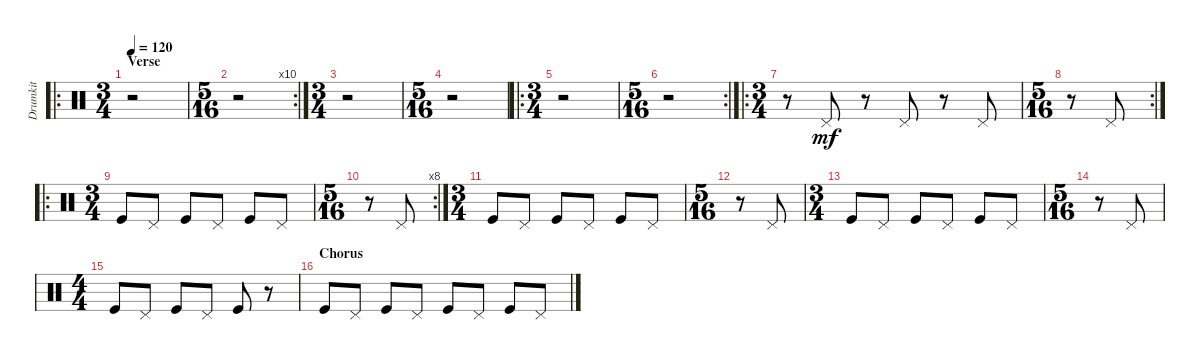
\track ("Drumkit" "Drumkit") {instrument percussion}
\staff {score}
\articulation defaults
\ro
\ts (3 4)
\section ("" "Verse")
\tempo 120
\clef neutral
\ks c
r.2{dy mf} |
\rc 10
\ts (5 16)
r.2 |
\ts (3 4)
r.2 |
\ts (5 16)
r.2 |
\ro
\ts (3 4)
r.2 |
\rc 2
\ts (5 16)
r.2 |
\ro
\ts (3 4)
r.8 "Pedal Hi-Hat (hit)".8 r.8 "Pedal Hi-Hat (hit)".8 r.8 "Pedal Hi-Hat (hit)".8 |
\rc 2
\ts (5 16)
r.8 "Pedal Hi-Hat (hit)".8 |
\ro
\ts (3 4)
"Kick (hit)".8 "Pedal Hi-Hat (hit)".8 "Kick (hit)".8 "Pedal Hi-Hat (hit)".8 "Kick (hit)".8 "Pedal Hi-Hat (hit)".8 |
\rc 8
\ts (5 16)
r.8 "Pedal Hi-Hat (hit)".8 |
\ts (3 4)
"Kick (hit)".8 "Pedal Hi-Hat (hit)".8 "Kick (hit)".8 "Pedal Hi-Hat (hit)".8 "Kick (hit)".8 "Pedal Hi-Hat (hit)".8 |
\ts (5 16)
r.8 "Pedal Hi-Hat (hit)".8 |
\ts (3 4)
"Kick (hit)".8 "Pedal Hi-Hat (hit)".8 "Kick (hit)".8 "Pedal Hi-Hat (hit)".8 "Kick (hit)".8 "Pedal Hi-Hat (hit)".8 |
\ts (5 16)
r.8 "Pedal Hi-Hat (hit)".8 |
\ts (4 4)
"Kick (hit)".8 "Pedal Hi-Hat (hit)".8 "Kick (hit)".8 "Pedal Hi-Hat (hit)".8 "Kick (hit)".8 r.8 |
\section ("" "Chorus")
"Kick (hit)".8 "Pedal Hi-Hat (hit)".8 "Kick (hit)".8 "Pedal Hi-Hat (hit)".8 "Kick (hit)".8 "Pedal Hi-Hat (hit)".8 "Kick (hit)".8 "Pedal Hi-Hat (hit)".8
